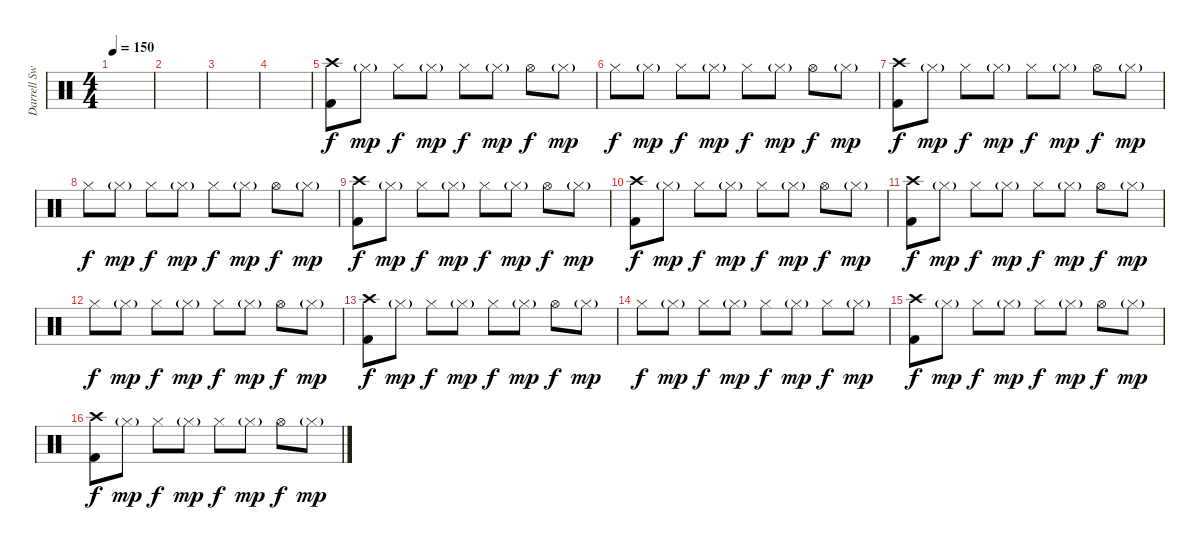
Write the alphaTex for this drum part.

\track ("Darrell Sweet (drums)" "Darrell Sw") {instrument percussion}
\staff {score}
\articulation defaults
\ts (4 4)
\tempo 150
\clef neutral
\ks c
|
|
|
|
("Kick (hit) 2" "Crash high (hit)").8 "Hi-Hat (closed)"{g}.8{dy mp} "Hi-Hat (closed)".8{dy f} "Hi-Hat (closed)"{g}.8{dy mp} "Hi-Hat (closed)".8{dy f} "Hi-Hat (closed)"{g}.8{dy mp} "Hi-Hat (open)".8{dy f} "Hi-Hat (closed)"{g}.8{dy mp} |
"Hi-Hat (closed)".8{dy f} "Hi-Hat (closed)"{g}.8{dy mp} "Hi-Hat (closed)".8{dy f} "Hi-Hat (closed)"{g}.8{dy mp} "Hi-Hat (closed)".8{dy f} "Hi-Hat (closed)"{g}.8{dy mp} "Hi-Hat (open)".8{dy f} "Hi-Hat (closed)"{g}.8{dy mp} |
("Kick (hit) 2" "Crash high (hit)").8{dy f} "Hi-Hat (closed)"{g}.8{dy mp} "Hi-Hat (closed)".8{dy f} "Hi-Hat (closed)"{g}.8{dy mp} "Hi-Hat (closed)".8{dy f} "Hi-Hat (closed)"{g}.8{dy mp} "Hi-Hat (open)".8{dy f} "Hi-Hat (closed)"{g}.8{dy mp} |
"Hi-Hat (closed)".8{dy f} "Hi-Hat (closed)"{g}.8{dy mp} "Hi-Hat (closed)".8{dy f} "Hi-Hat (closed)"{g}.8{dy mp} "Hi-Hat (closed)".8{dy f} "Hi-Hat (closed)"{g}.8{dy mp} "Hi-Hat (open)".8{dy f} "Hi-Hat (closed)"{g}.8{dy mp} |
("Kick (hit) 2" "Crash high (hit)").8{dy f} "Hi-Hat (closed)"{g}.8{dy mp} "Hi-Hat (closed)".8{dy f} "Hi-Hat (closed)"{g}.8{dy mp} "Hi-Hat (closed)".8{dy f} "Hi-Hat (closed)"{g}.8{dy mp} "Hi-Hat (open)".8{dy f} "Hi-Hat (closed)"{g}.8{dy mp} |
("Kick (hit) 2" "Crash high (hit)").8{dy f} "Hi-Hat (closed)"{g}.8{dy mp} "Hi-Hat (closed)".8{dy f} "Hi-Hat (closed)"{g}.8{dy mp} "Hi-Hat (closed)".8{dy f} "Hi-Hat (closed)"{g}.8{dy mp} "Hi-Hat (open)".8{dy f} "Hi-Hat (closed)"{g}.8{dy mp} |
("Kick (hit) 2" "Crash high (hit)").8{dy f} "Hi-Hat (closed)"{g}.8{dy mp} "Hi-Hat (closed)".8{dy f} "Hi-Hat (closed)"{g}.8{dy mp} "Hi-Hat (closed)".8{dy f} "Hi-Hat (closed)"{g}.8{dy mp} "Hi-Hat (open)".8{dy f} "Hi-Hat (closed)"{g}.8{dy mp} |
"Hi-Hat (closed)".8{dy f} "Hi-Hat (closed)"{g}.8{dy mp} "Hi-Hat (closed)".8{dy f} "Hi-Hat (closed)"{g}.8{dy mp} "Hi-Hat (closed)".8{dy f} "Hi-Hat (closed)"{g}.8{dy mp} "Hi-Hat (open)".8{dy f} "Hi-Hat (closed)"{g}.8{dy mp} |
("Kick (hit) 2" "Crash high (hit)").8{dy f} "Hi-Hat (closed)"{g}.8{dy mp} "Hi-Hat (closed)".8{dy f} "Hi-Hat (closed)"{g}.8{dy mp} "Hi-Hat (closed)".8{dy f} "Hi-Hat (closed)"{g}.8{dy mp} "Hi-Hat (open)".8{dy f} "Hi-Hat (closed)"{g}.8{dy mp} |
"Hi-Hat (closed)".8{dy f} "Hi-Hat (closed)"{g}.8{dy mp} "Hi-Hat (closed)".8{dy f} "Hi-Hat (closed)"{g}.8{dy mp} "Hi-Hat (closed)".8{dy f} "Hi-Hat (closed)"{g}.8{dy mp} "Hi-Hat (closed)".8{dy f} "Hi-Hat (closed)"{g}.8{dy mp} |
("Kick (hit) 2" "Crash high (hit)").8{dy f} "Hi-Hat (closed)"{g}.8{dy mp} "Hi-Hat (closed)".8{dy f} "Hi-Hat (closed)"{g}.8{dy mp} "Hi-Hat (closed)".8{dy f} "Hi-Hat (closed)"{g}.8{dy mp} "Hi-Hat (open)".8{dy f} "Hi-Hat (closed)"{g}.8{dy mp} |
("Kick (hit) 2" "Crash high (hit)").8{dy f} "Hi-Hat (closed)"{g}.8{dy mp} "Hi-Hat (closed)".8{dy f} "Hi-Hat (closed)"{g}.8{dy mp} "Hi-Hat (closed)".8{dy f} "Hi-Hat (closed)"{g}.8{dy mp} "Hi-Hat (open)".8{dy f} "Hi-Hat (closed)"{g}.8{dy mp}
